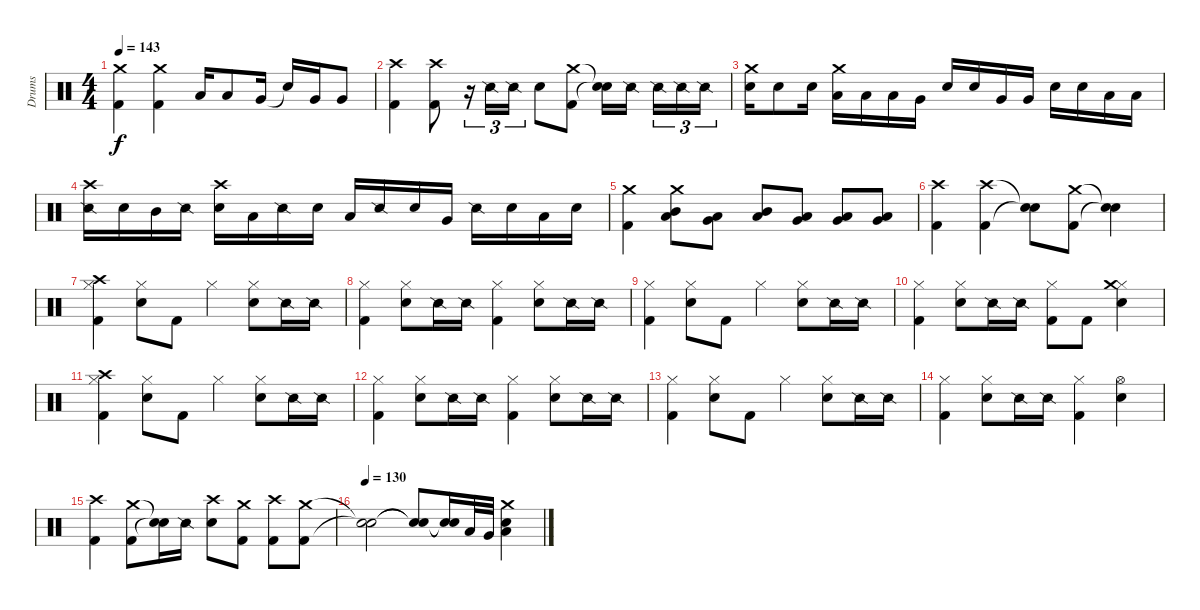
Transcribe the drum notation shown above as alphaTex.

\track ("Drums" "Drums") {instrument percussion}
\staff {score}
\articulation defaults
\ts (4 4)
\tempo 143
\clef neutral
\ks c
("Crash medium (hit)" "Kick (hit) 2").4{dy f} ("Crash medium (hit)" "Kick (hit) 2").4 "Low Tom (hit)".16 "Low Tom (hit)".8 "Very Low Tom (hit)".16 "Snare (hit)"{t}.16 "Very Low Tom (hit)".16 "Very Low Tom (hit)".8 |
("Crash high (hit)" "Kick (hit) 2").4 ("Crash high (hit)" "Kick (hit) 2").8 r.16{tu (3 2)} "Snare (side stick) 2".16{tu (3 2)} "Snare (side stick) 2".16{tu (3 2)} "Metronome (bell)".8 ("Crash medium (hit)" "Kick (hit) 2").8 ("Snare (hit)"{t} "Snare (hit)"{t}).16 "Snare (side stick) 2".16 "Snare (side stick) 2".16{tu (3 2)} "Snare (side stick) 2".16{tu (3 2)} "Snare (side stick) 2".16{tu (3 2)} |
("Crash medium (hit)" "Metronome (bell)").16 "Metronome (bell)".8 "Metronome (bell)".16 ("Crash medium (hit)" "Low Tom (hit)").16 "Low Tom (hit)".16 "Low Tom (hit)".16 "Very Low Tom (hit)".16 "Metronome (bell)".16 "Metronome (bell)".16 "Very Low Tom (hit)".16 "Very Low Tom (hit)".16 "Metronome (bell)".16 "Metronome (bell)".16 "Low Floor Tom (hit)".16 "Low Floor Tom (hit)".16 |
("Crash high (hit)" "Snare (side stick) 2").16 "Metronome (bell)".16 "Mid Tom (hit)".16 "Snare (side stick) 2".16 ("Crash high (hit)" "Metronome (bell)").16 "Low Tom (hit)".16 "Snare (side stick) 2".16 "Metronome (bell)".16 "Low Tom (hit)".16 "Snare (side stick) 2".16 "Metronome (bell)".16 "Very Low Tom (hit)".16 "Snare (side stick) 2".16 "Metronome (bell)".16 "Low Floor Tom (hit)".16 "Metronome (bell)".16 |
("Crash medium (hit)" "Kick (hit) 2").4 ("Crash medium (hit)" "Mid Tom (hit)" "Low Tom (hit)").8 ("Low Tom (hit)" "Very Low Tom (hit)").8 ("Mid Tom (hit)" "Low Tom (hit)").8 ("Very Low Tom (hit)" "Low Floor Tom (hit)").8 ("Low Tom (hit)" "Very Low Tom (hit)").8 ("Very Low Tom (hit)" "Low Floor Tom (hit)").8 |
("Crash high (hit)" "Kick (hit) 2").4 ("Crash high (hit)" "Kick (hit) 2").4 ("Snare (hit)"{t} "Snare (hit)"{t}).8 ("Crash medium (hit)" "Kick (hit) 2").8 ("Snare (hit)"{t} "Snare (hit)"{t}).4 |
("Hi-Hat (closed)" "Crash high (hit)" "Kick (hit) 2").4 ("Hi-Hat (closed)" "Metronome (bell)").8 "Kick (hit) 2".8 "Hi-Hat (closed)".4 ("Hi-Hat (closed)" "Metronome (bell)").8 "Snare (side stick) 2".16 "Snare (side stick) 2".16 |
("Hi-Hat (closed)" "Kick (hit) 2").4 ("Hi-Hat (closed)" "Metronome (bell)").8 "Snare (side stick) 2".16 "Snare (side stick) 2".16 ("Hi-Hat (closed)" "Kick (hit) 2").4 ("Hi-Hat (closed)" "Metronome (bell)").8 "Snare (side stick) 2".16 "Snare (side stick) 2".16 |
("Hi-Hat (closed)" "Kick (hit) 2").4 ("Hi-Hat (closed)" "Metronome (bell)").8 "Kick (hit) 2".8 "Hi-Hat (closed)".4 ("Hi-Hat (closed)" "Metronome (bell)").8 "Snare (side stick) 2".16 "Snare (side stick) 2".16 |
("Hi-Hat (closed)" "Kick (hit) 2").4 ("Hi-Hat (closed)" "Metronome (bell)").8 "Snare (side stick) 2".16 "Snare (side stick) 2".16 ("Hi-Hat (closed)" "Kick (hit) 2").8 "Kick (hit) 2".8 ("Hi-Hat (closed)" "Crash medium (hit)" "Metronome (bell)").4 |
("Hi-Hat (closed)" "Crash high (hit)" "Kick (hit) 2").4 ("Hi-Hat (closed)" "Metronome (bell)").8 "Kick (hit) 2".8 "Hi-Hat (closed)".4 ("Hi-Hat (closed)" "Metronome (bell)").8 "Snare (side stick) 2".16 "Snare (side stick) 2".16 |
("Hi-Hat (closed)" "Kick (hit) 2").4 ("Hi-Hat (closed)" "Metronome (bell)").8 "Snare (side stick) 2".16 "Snare (side stick) 2".16 ("Hi-Hat (closed)" "Kick (hit) 2").4 ("Hi-Hat (closed)" "Metronome (bell)").8 "Snare (side stick) 2".16 "Snare (side stick) 2".16 |
("Hi-Hat (closed)" "Kick (hit) 2").4 ("Hi-Hat (closed)" "Metronome (bell)").8 "Kick (hit) 2".8 "Hi-Hat (closed)".4 ("Hi-Hat (closed)" "Metronome (bell)").8 "Snare (side stick) 2".16 "Snare (side stick) 2".16 |
("Hi-Hat (closed)" "Kick (hit) 2").4 ("Hi-Hat (closed)" "Metronome (bell)").8 "Snare (side stick) 2".16 "Snare (side stick) 2".16 ("Hi-Hat (closed)" "Kick (hit) 2").4 ("Hi-Hat (open)" "Metronome (bell)").4 |
("Crash high (hit)" "Kick (hit) 2").4 ("Crash medium (hit)" "Kick (hit) 2").8 ("Snare (hit)"{t} "Snare (hit)"{t}).16 "Snare (side stick) 2".16 ("Crash high (hit)" "Metronome (bell)").8 ("Crash medium (hit)" "Kick (hit) 2").8 ("Crash high (hit)" "Kick (hit) 2").8 ("Crash medium (hit)" "Kick (hit) 2").8 |
\tempo 130
("Snare (hit)"{t} "Snare (hit)"{t}).2 ("Snare (hit)"{t} "Snare (hit)"{t}).8 ("Snare (hit)"{t} "Snare (hit)"{t}).16 "Low Tom (hit)".32 "Very Low Tom (hit)".32 ("Crash medium (hit)" "Low Tom (hit)" "Metronome (bell)").4
